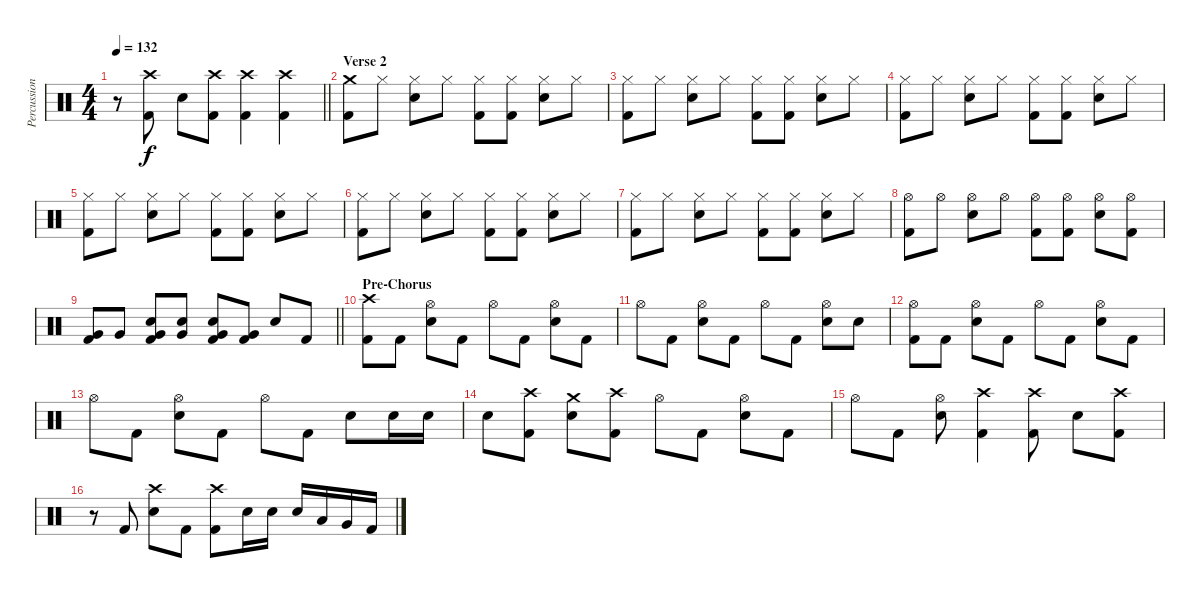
\track ("Percussion" "Percussion") {instrument percussion}
\staff {score}
\articulation defaults
\ts (4 4)
\tempo 132
\clef neutral
\barLineRight lightlight
\ks c
r.8{dy f} ("Crash high (hit)" "Kick (hit) 2").8 "Snare (hit) 2".8 ("Crash high (hit)" "Kick (hit) 2").8 ("Crash high (hit)" "Kick (hit) 2").4 ("Crash high (hit)" "Kick (hit) 2").4 |
\section ("" "Verse 2")
("Crash medium (hit)" "Kick (hit) 2").8 "Hi-Hat (closed)".8 ("Hi-Hat (closed)" "Snare (hit) 2").8 "Hi-Hat (closed)".8 ("Hi-Hat (closed)" "Kick (hit) 2").8 ("Hi-Hat (closed)" "Kick (hit) 2").8 ("Hi-Hat (closed)" "Snare (hit) 2").8 "Hi-Hat (closed)".8 |
("Hi-Hat (closed)" "Kick (hit) 2").8 "Hi-Hat (closed)".8 ("Hi-Hat (closed)" "Snare (hit) 2").8 "Hi-Hat (closed)".8 ("Hi-Hat (closed)" "Kick (hit) 2").8 ("Hi-Hat (closed)" "Kick (hit) 2").8 ("Hi-Hat (closed)" "Snare (hit) 2").8 "Hi-Hat (closed)".8 |
("Hi-Hat (closed)" "Kick (hit) 2").8 "Hi-Hat (closed)".8 ("Hi-Hat (closed)" "Snare (hit) 2").8 "Hi-Hat (closed)".8 ("Hi-Hat (closed)" "Kick (hit) 2").8 ("Hi-Hat (closed)" "Kick (hit) 2").8 ("Hi-Hat (closed)" "Snare (hit) 2").8 "Hi-Hat (closed)".8 |
("Hi-Hat (closed)" "Kick (hit) 2").8 "Hi-Hat (closed)".8 ("Hi-Hat (closed)" "Snare (hit) 2").8 "Hi-Hat (closed)".8 ("Hi-Hat (closed)" "Kick (hit) 2").8 ("Hi-Hat (closed)" "Kick (hit) 2").8 ("Hi-Hat (closed)" "Snare (hit) 2").8 "Hi-Hat (closed)".8 |
("Hi-Hat (closed)" "Kick (hit) 2").8 "Hi-Hat (closed)".8 ("Hi-Hat (closed)" "Snare (hit) 2").8 "Hi-Hat (closed)".8 ("Hi-Hat (closed)" "Kick (hit) 2").8 ("Hi-Hat (closed)" "Kick (hit) 2").8 ("Hi-Hat (closed)" "Snare (hit) 2").8 "Hi-Hat (closed)".8 |
("Hi-Hat (closed)" "Kick (hit) 2").8 "Hi-Hat (closed)".8 ("Hi-Hat (closed)" "Snare (hit) 2").8 "Hi-Hat (closed)".8 ("Hi-Hat (closed)" "Kick (hit) 2").8 ("Hi-Hat (closed)" "Kick (hit) 2").8 ("Hi-Hat (closed)" "Snare (hit) 2").8 "Hi-Hat (closed)".8 |
("Hi-Hat (open)" "Kick (hit) 2").8 "Hi-Hat (open)".8 ("Hi-Hat (open)" "Snare (hit) 2").8 "Hi-Hat (open)".8 ("Hi-Hat (open)" "Kick (hit) 2").8 ("Hi-Hat (open)" "Kick (hit) 2").8 ("Hi-Hat (open)" "Snare (hit) 2").8 ("Hi-Hat (open)" "Kick (hit) 2").8 |
\barLineRight lightlight
("Very Low Tom (hit)" "Kick (hit) 2").8 "Very Low Tom (hit)".8 ("Snare (hit) 2" "Very Low Tom (hit)" "Kick (hit) 2").8 ("Snare (hit) 2" "Very Low Tom (hit)").8 ("Snare (hit) 2" "Very Low Tom (hit)" "Kick (hit) 2").8 ("Very Low Tom (hit)" "Kick (hit) 2").8 "Snare (hit) 2".8 "Kick (hit) 2".8 |
\section ("" "Pre-Chorus")
("Crash high (hit)" "Kick (hit) 2").8 "Kick (hit) 2".8 ("Hi-Hat (open)" "Snare (hit) 2").8 "Kick (hit) 2".8 "Hi-Hat (open)".8 "Kick (hit) 2".8 ("Hi-Hat (open)" "Snare (hit) 2").8 "Kick (hit) 2".8 |
"Hi-Hat (open)".8 "Kick (hit) 2".8 ("Hi-Hat (open)" "Snare (hit) 2").8 "Kick (hit) 2".8 "Hi-Hat (open)".8 "Kick (hit) 2".8 ("Hi-Hat (open)" "Snare (hit) 2").8 "Snare (hit) 2".8 |
("Hi-Hat (open)" "Kick (hit) 2").8 "Kick (hit) 2".8 ("Hi-Hat (open)" "Snare (hit) 2").8 "Kick (hit) 2".8 "Hi-Hat (open)".8 "Kick (hit) 2".8 ("Hi-Hat (open)" "Snare (hit) 2").8 "Kick (hit) 2".8 |
"Hi-Hat (open)".8 "Kick (hit) 2".8 ("Hi-Hat (open)" "Snare (hit) 2").8 "Kick (hit) 2".8 "Hi-Hat (open)".8 "Kick (hit) 2".8 "Snare (hit) 2".8 "Snare (hit) 2".16 "Snare (hit) 2".16 |
"Snare (hit) 2".8 ("Crash high (hit)" "Kick (hit) 2").8 ("Crash medium (hit)" "Snare (hit) 2").8 ("Crash high (hit)" "Kick (hit) 2").8 "Hi-Hat (open)".8 "Kick (hit) 2".8 ("Hi-Hat (open)" "Snare (hit) 2").8 "Kick (hit) 2".8 |
"Hi-Hat (open)".8 "Kick (hit) 2".8 ("Hi-Hat (open)" "Snare (hit) 2").8 ("Crash high (hit)" "Kick (hit) 2").4 ("Crash high (hit)" "Kick (hit) 2").8 "Snare (hit) 2".8 ("Crash high (hit)" "Kick (hit) 2").8 |
r.8 "Kick (hit) 2".8 ("Crash high (hit)" "Snare (hit) 2").8 "Kick (hit) 2".8 ("Crash high (hit)" "Kick (hit) 2").8 "Snare (hit) 2".16 "Snare (hit) 2".16 "Snare (hit) 2".16 "Low Tom (hit)".16 "Very Low Tom (hit)".16 "Kick (hit) 2".16
